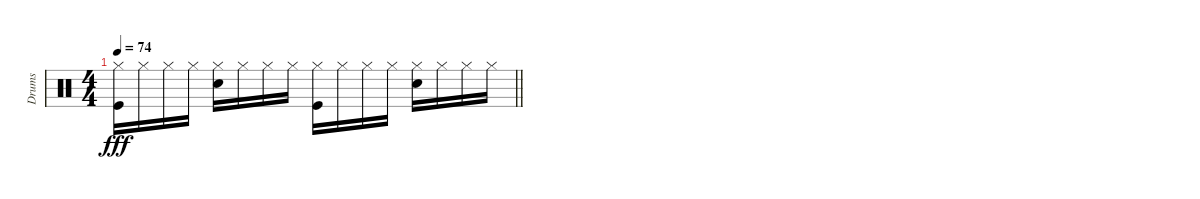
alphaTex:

\track ("Drums" "Drums") {instrument percussion}
\staff {score}
\articulation defaults
\ts (4 4)
\tempo 74
\clef neutral
\barLineRight lightlight
\ks c
("Hi-Hat (closed)" "Kick (hit)").16{dy fff volume 0} "Hi-Hat (closed)".16 "Hi-Hat (closed)".16 "Hi-Hat (closed)".16 ("Hi-Hat (closed)" "Snare (hit) 2").16 "Hi-Hat (closed)".16 "Hi-Hat (closed)".16 "Hi-Hat (closed)".16 ("Hi-Hat (closed)" "Kick (hit)").16 "Hi-Hat (closed)".16 "Hi-Hat (closed)".16 "Hi-Hat (closed)".16 ("Hi-Hat (closed)" "Snare (hit) 2").16 "Hi-Hat (closed)".16 "Hi-Hat (closed)".16 "Hi-Hat (closed)".16
